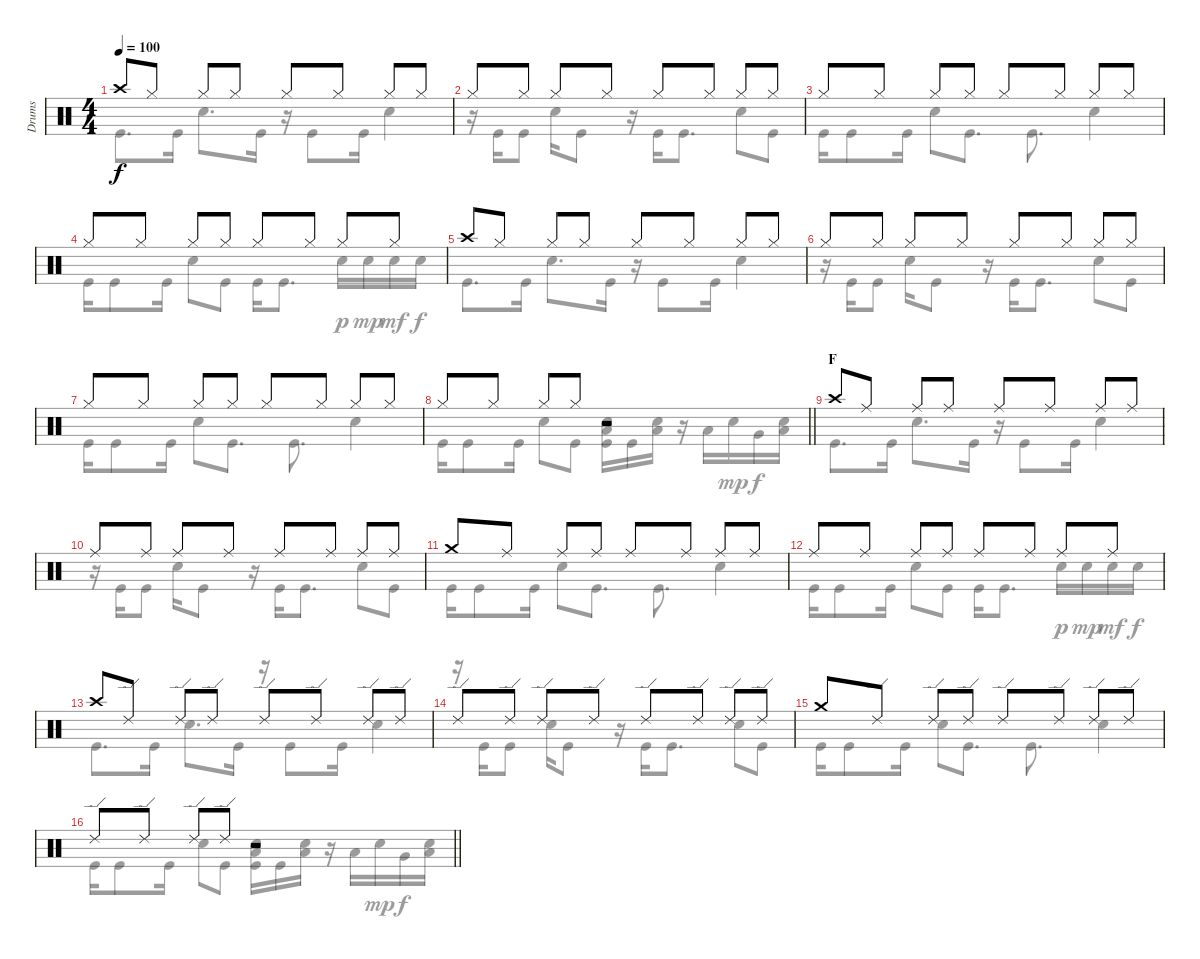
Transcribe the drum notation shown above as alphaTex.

\track ("Drums" "Drums") {instrument percussion}
\staff {score}
\articulation defaults
\voice
\ts (4 4)
\tempo 100
\clef neutral
\ks c "Crash high (hit)".8{dy f} "Hi-Hat (closed)".8 "Hi-Hat (closed)".8 "Hi-Hat (closed)".8 "Hi-Hat (closed)".8 "Hi-Hat (closed)".8 "Hi-Hat (closed)".8 "Hi-Hat (closed)".8
|
"Hi-Hat (closed)".8 "Hi-Hat (closed)".8 "Hi-Hat (closed)".8 "Hi-Hat (closed)".8 "Hi-Hat (closed)".8 "Hi-Hat (closed)".8 "Hi-Hat (closed)".8 "Hi-Hat (closed)".8 |
"Hi-Hat (closed)".8 "Hi-Hat (closed)".8 "Hi-Hat (closed)".8 "Hi-Hat (closed)".8 "Hi-Hat (closed)".8 "Hi-Hat (closed)".8 "Hi-Hat (closed)".8 "Hi-Hat (closed)".8 |
"Hi-Hat (closed)".8 "Hi-Hat (closed)".8 "Hi-Hat (closed)".8 "Hi-Hat (closed)".8 "Hi-Hat (closed)".8 "Hi-Hat (closed)".8 "Hi-Hat (closed)".8 "Hi-Hat (closed)".8 |
"Crash high (hit)".8 "Hi-Hat (closed)".8 "Hi-Hat (closed)".8 "Hi-Hat (closed)".8 "Hi-Hat (closed)".8 "Hi-Hat (closed)".8 "Hi-Hat (closed)".8 "Hi-Hat (closed)".8 |
"Hi-Hat (closed)".8 "Hi-Hat (closed)".8 "Hi-Hat (closed)".8 "Hi-Hat (closed)".8 "Hi-Hat (closed)".8 "Hi-Hat (closed)".8 "Hi-Hat (closed)".8 "Hi-Hat (closed)".8 |
"Hi-Hat (closed)".8 "Hi-Hat (closed)".8 "Hi-Hat (closed)".8 "Hi-Hat (closed)".8 "Hi-Hat (closed)".8 "Hi-Hat (closed)".8 "Hi-Hat (closed)".8 "Hi-Hat (closed)".8 |
\barLineRight lightlight "Hi-Hat (closed)".8 "Hi-Hat (closed)".8 "Hi-Hat (closed)".8 "Hi-Hat (closed)".8
r.2 |
\section ("" "F")
"Crash high (hit)".8 "Ride (middle)".8 "Ride (middle)".8 "Ride (middle)".8 "Ride (middle)".8 "Ride (middle)".8 "Ride (middle)".8 "Ride (middle)".8 |
"Ride (middle)".8 "Ride (middle)".8 "Ride (middle)".8 "Ride (middle)".8 "Ride (middle)".8 "Ride (middle)".8 "Ride (middle)".8 "Ride (middle)".8 |
"Crash medium (hit)".8 "Ride (middle)".8 "Ride (middle)".8 "Ride (middle)".8 "Ride (middle)".8 "Ride (middle)".8 "Ride (middle)".8 "Ride (middle)".8 |
"Ride (middle)".8 "Ride (middle)".8 "Ride (middle)".8 "Ride (middle)".8 "Ride (middle)".8 "Ride (middle)".8 "Ride (middle)".8 "Ride (middle)".8 |
"Crash high (hit)".8 "Ride (edge) 2".8 "Ride (edge) 2".8 "Ride (edge) 2".8 "Ride (edge) 2".8 "Ride (edge) 2".8 "Ride (edge) 2".8 "Ride (edge) 2".8 |
"Ride (edge) 2".8 "Ride (edge) 2".8 "Ride (edge) 2".8 "Ride (edge) 2".8 "Ride (edge) 2".8 "Ride (edge) 2".8 "Ride (edge) 2".8 "Ride (edge) 2".8 |
"Crash medium (hit)".8 "Ride (edge) 2".8 "Ride (edge) 2".8 "Ride (edge) 2".8 "Ride (edge) 2".8 "Ride (edge) 2".8 "Ride (edge) 2".8 "Ride (edge) 2".8 |
\barLineRight lightlight "Ride (edge) 2".8 "Ride (edge) 2".8 "Ride (edge) 2".8 "Ride (edge) 2".8
r.2
\voice
\clef neutral
\ottava regular
\simile none
\ks c "Kick (hit)".8{d dy f} "Kick (hit)".16 "Snare (hit) 2".8{d} "Kick (hit)".16
r.16 "Kick (hit)".8 "Kick (hit)".16 "Snare (hit) 2".4 |
r.16 "Kick (hit)".16 "Kick (hit)".8 "Snare (hit) 2".16 "Kick (hit)".8 r.16 "Kick (hit)".16 "Kick (hit)".8{d} "Snare (hit) 2".8 "Kick (hit)".8 |
"Kick (hit)".16 "Kick (hit)".8 "Kick (hit)".16 "Snare (hit) 2".8 "Kick (hit)".8{d} "Kick (hit)".8{d} "Snare (hit) 2".4 |
"Kick (hit)".16 "Kick (hit)".8 "Kick (hit)".16 "Snare (hit) 2".8 "Kick (hit)".8 "Kick (hit)".16 "Kick (hit)".8{d} "Snare (hit) 2".16{dy p} "Snare (hit) 2".16{dy mp} "Snare (hit) 2".16{dy mf} "Snare (hit) 2".16{dy f} |
"Kick (hit)".8{d} "Kick (hit)".16 "Snare (hit) 2".8{d} "Kick (hit)".16 r.16 "Kick (hit)".8 "Kick (hit)".16 "Snare (hit) 2".4 |
r.16 "Kick (hit)".16 "Kick (hit)".8 "Snare (hit) 2".16 "Kick (hit)".8 r.16 "Kick (hit)".16 "Kick (hit)".8{d} "Snare (hit) 2".8 "Kick (hit)".8 |
"Kick (hit)".16 "Kick (hit)".8 "Kick (hit)".16 "Snare (hit) 2".8 "Kick (hit)".8{d} "Kick (hit)".8{d} "Snare (hit) 2".4 |
\barLineRight lightlight "Kick (hit)".16 "Kick (hit)".8 "Kick (hit)".16 "Snare (hit) 2".8 "Kick (hit)".8
("Snare (hit) 2" "Low Floor Tom (hit)" "Kick (hit)").16 "Kick (hit)".16 ("Snare (hit) 2" "Low Floor Tom (hit)").16 r.16 "Low Tom (hit)".16 "Snare (hit) 2".16{dy mp} "Very Low Tom (hit)".16{dy f} ("Snare (hit) 2" "Low Floor Tom (hit)").16 |
"Kick (hit)".8{d} "Kick (hit)".16 "Snare (hit) 2".8{d} "Kick (hit)".16 r.16 "Kick (hit)".8 "Kick (hit)".16 "Snare (hit) 2".4 |
r.16 "Kick (hit)".16 "Kick (hit)".8 "Snare (hit) 2".16 "Kick (hit)".8 r.16 "Kick (hit)".16 "Kick (hit)".8{d} "Snare (hit) 2".8 "Kick (hit)".8 |
"Kick (hit)".16 "Kick (hit)".8 "Kick (hit)".16 "Snare (hit) 2".8 "Kick (hit)".8{d} "Kick (hit)".8{d} "Snare (hit) 2".4 |
"Kick (hit)".16 "Kick (hit)".8 "Kick (hit)".16 "Snare (hit) 2".8 "Kick (hit)".8 "Kick (hit)".16 "Kick (hit)".8{d} "Snare (hit) 2".16{dy p} "Snare (hit) 2".16{dy mp} "Snare (hit) 2".16{dy mf} "Snare (hit) 2".16{dy f} |
"Kick (hit)".8{d} "Kick (hit)".16 "Snare (hit) 2".8{d} "Kick (hit)".16 r.16 "Kick (hit)".8 "Kick (hit)".16 "Snare (hit) 2".4 |
r.16 "Kick (hit)".16 "Kick (hit)".8 "Snare (hit) 2".16 "Kick (hit)".8 r.16 "Kick (hit)".16 "Kick (hit)".8{d} "Snare (hit) 2".8 "Kick (hit)".8 |
"Kick (hit)".16 "Kick (hit)".8 "Kick (hit)".16 "Snare (hit) 2".8 "Kick (hit)".8{d} "Kick (hit)".8{d} "Snare (hit) 2".4 |
\barLineRight lightlight "Kick (hit)".16 "Kick (hit)".8 "Kick (hit)".16 "Snare (hit) 2".8 "Kick (hit)".8
("Snare (hit) 2" "Low Floor Tom (hit)" "Kick (hit)").16 "Kick (hit)".16 ("Snare (hit) 2" "Low Floor Tom (hit)").16 r.16 "Low Tom (hit)".16 "Snare (hit) 2".16{dy mp} "Very Low Tom (hit)".16{dy f} ("Snare (hit) 2" "Low Floor Tom (hit)").16
